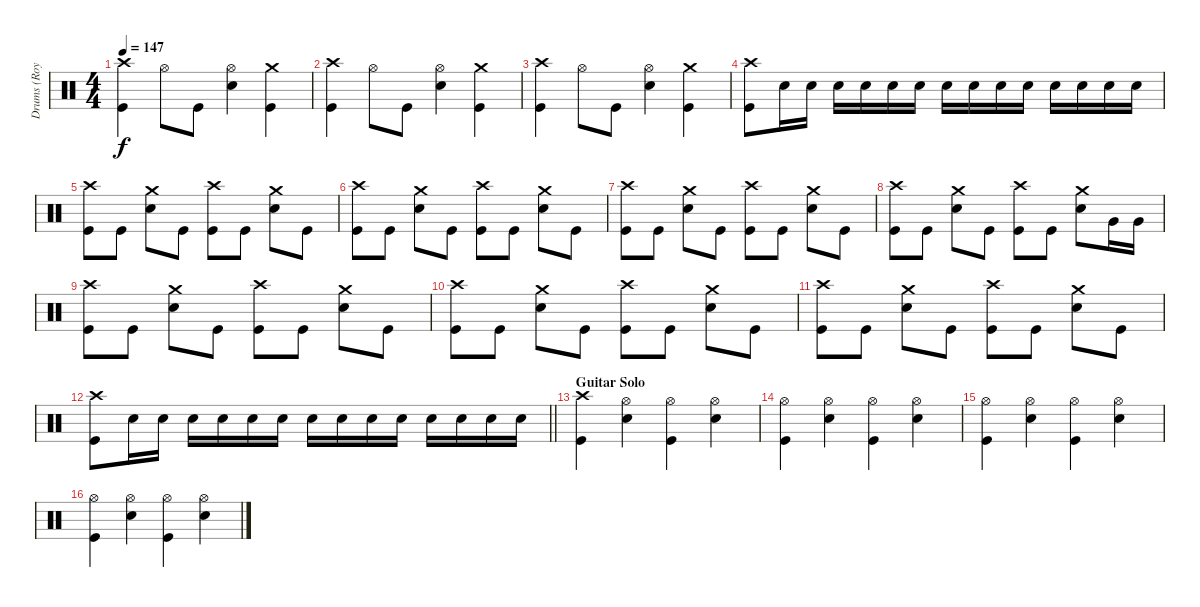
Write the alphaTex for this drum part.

\track ("Drums (Roy)" "Drums (Roy") {instrument percussion}
\staff {score}
\articulation defaults
\ts (4 4)
\tempo 147
\clef neutral
\ks c
("Crash high (hit)" "Kick (hit)").4{dy f} "Hi-Hat (open)".8 "Kick (hit)".8 ("Hi-Hat (open)" "Snare (hit) 2").4 ("Crash medium (hit)" "Kick (hit)").4 |
("Crash high (hit)" "Kick (hit)").4 "Hi-Hat (open)".8 "Kick (hit)".8 ("Hi-Hat (open)" "Snare (hit) 2").4 ("Crash medium (hit)" "Kick (hit)").4 |
("Crash high (hit)" "Kick (hit)").4 "Hi-Hat (open)".8 "Kick (hit)".8 ("Hi-Hat (open)" "Snare (hit) 2").4 ("Crash medium (hit)" "Kick (hit)").4 |
("Crash high (hit)" "Kick (hit)").8 "Snare (hit) 2".16 "Snare (hit) 2".16 "Snare (hit) 2".16 "Snare (hit) 2".16 "Snare (hit) 2".16 "Snare (hit) 2".16 "Snare (hit) 2".16 "Snare (hit) 2".16 "Snare (hit) 2".16 "Snare (hit) 2".16 "Snare (hit) 2".16 "Snare (hit) 2".16 "Snare (hit) 2".16 "Snare (hit) 2".16 |
("Crash high (hit)" "Kick (hit)").8 "Kick (hit)".8 ("Crash medium (hit)" "Snare (hit) 2").8 "Kick (hit)".8 ("Crash high (hit)" "Kick (hit)").8 "Kick (hit)".8 ("Crash medium (hit)" "Snare (hit) 2").8 "Kick (hit)".8 |
("Crash high (hit)" "Kick (hit)").8 "Kick (hit)".8 ("Crash medium (hit)" "Snare (hit) 2").8 "Kick (hit)".8 ("Crash high (hit)" "Kick (hit)").8 "Kick (hit)".8 ("Crash medium (hit)" "Snare (hit) 2").8 "Kick (hit)".8 |
("Crash high (hit)" "Kick (hit)").8 "Kick (hit)".8 ("Crash medium (hit)" "Snare (hit) 2").8 "Kick (hit)".8 ("Crash high (hit)" "Kick (hit)").8 "Kick (hit)".8 ("Crash medium (hit)" "Snare (hit) 2").8 "Kick (hit)".8 |
("Crash high (hit)" "Kick (hit)").8 "Kick (hit)".8 ("Crash medium (hit)" "Snare (hit) 2").8 "Kick (hit)".8 ("Crash high (hit)" "Kick (hit)").8 "Kick (hit)".8 ("Crash medium (hit)" "Snare (hit) 2").8 "Very Low Tom (hit)".16 "Very Low Tom (hit)".16 |
("Crash high (hit)" "Kick (hit)").8 "Kick (hit)".8 ("Crash medium (hit)" "Snare (hit) 2").8 "Kick (hit)".8 ("Crash high (hit)" "Kick (hit)").8 "Kick (hit)".8 ("Crash medium (hit)" "Snare (hit) 2").8 "Kick (hit)".8 |
("Crash high (hit)" "Kick (hit)").8 "Kick (hit)".8 ("Crash medium (hit)" "Snare (hit) 2").8 "Kick (hit)".8 ("Crash high (hit)" "Kick (hit)").8 "Kick (hit)".8 ("Crash medium (hit)" "Snare (hit) 2").8 "Kick (hit)".8 |
("Crash high (hit)" "Kick (hit)").8 "Kick (hit)".8 ("Crash medium (hit)" "Snare (hit) 2").8 "Kick (hit)".8 ("Crash high (hit)" "Kick (hit)").8 "Kick (hit)".8 ("Crash medium (hit)" "Snare (hit) 2").8 "Kick (hit)".8 |
\barLineRight lightlight
("Crash high (hit)" "Kick (hit)").8 "Snare (hit) 2".16 "Snare (hit) 2".16 "Snare (hit) 2".16 "Snare (hit) 2".16 "Snare (hit) 2".16 "Snare (hit) 2".16 "Snare (hit) 2".16 "Snare (hit) 2".16 "Snare (hit) 2".16 "Snare (hit) 2".16 "Snare (hit) 2".16 "Snare (hit) 2".16 "Snare (hit) 2".16 "Snare (hit) 2".16 |
\section ("" "Guitar Solo")
("Crash high (hit)" "Kick (hit)").4 ("Hi-Hat (open)" "Snare (hit) 2").4 ("Hi-Hat (open)" "Kick (hit)").4 ("Hi-Hat (open)" "Snare (hit) 2").4 |
("Hi-Hat (open)" "Kick (hit)").4 ("Hi-Hat (open)" "Snare (hit) 2").4 ("Hi-Hat (open)" "Kick (hit)").4 ("Hi-Hat (open)" "Snare (hit) 2").4 |
("Hi-Hat (open)" "Kick (hit)").4 ("Hi-Hat (open)" "Snare (hit) 2").4 ("Hi-Hat (open)" "Kick (hit)").4 ("Hi-Hat (open)" "Snare (hit) 2").4 |
("Hi-Hat (open)" "Kick (hit)").4 ("Hi-Hat (open)" "Snare (hit) 2").4 ("Hi-Hat (open)" "Kick (hit)").4 ("Hi-Hat (open)" "Snare (hit) 2").4
